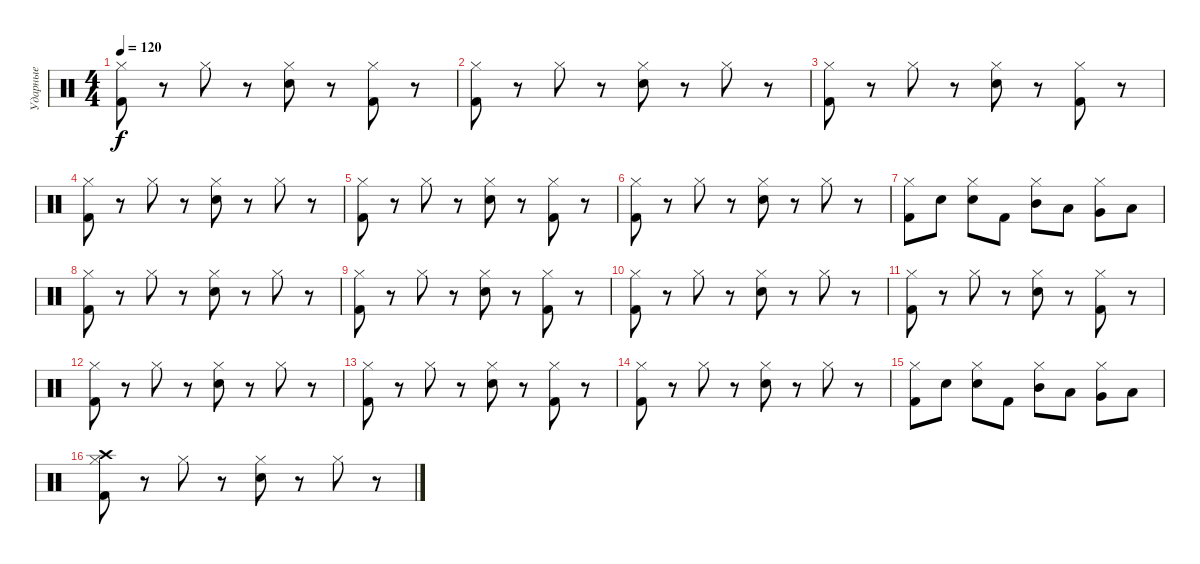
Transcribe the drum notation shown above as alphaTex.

\track ("Ударные" "Ударные") {instrument percussion}
\staff {score}
\articulation defaults
\ts (4 4)
\tempo 120
\clef neutral
\ks c
("Hi-Hat (closed)" "Kick (hit) 2").8{dy f} r.8 "Hi-Hat (closed)".8 r.8 ("Snare (hit) 2" "Hi-Hat (closed)").8 r.8 ("Hi-Hat (closed)" "Kick (hit) 2").8 r.8 |
("Hi-Hat (closed)" "Kick (hit) 2").8 r.8 "Hi-Hat (closed)".8 r.8 ("Snare (hit) 2" "Hi-Hat (closed)").8 r.8 "Hi-Hat (closed)".8 r.8 |
("Hi-Hat (closed)" "Kick (hit) 2").8 r.8 "Hi-Hat (closed)".8 r.8 ("Snare (hit) 2" "Hi-Hat (closed)").8 r.8 ("Hi-Hat (closed)" "Kick (hit) 2").8 r.8 |
("Hi-Hat (closed)" "Kick (hit) 2").8 r.8 "Hi-Hat (closed)".8 r.8 ("Snare (hit) 2" "Hi-Hat (closed)").8 r.8 "Hi-Hat (closed)".8 r.8 |
("Hi-Hat (closed)" "Kick (hit) 2").8 r.8 "Hi-Hat (closed)".8 r.8 ("Snare (hit) 2" "Hi-Hat (closed)").8 r.8 ("Hi-Hat (closed)" "Kick (hit) 2").8 r.8 |
("Hi-Hat (closed)" "Kick (hit) 2").8 r.8 "Hi-Hat (closed)".8 r.8 ("Snare (hit) 2" "Hi-Hat (closed)").8 r.8 "Hi-Hat (closed)".8 r.8 |
("Hi-Hat (closed)" "Kick (hit) 2").8 "Snare (hit) 2".8 ("Snare (hit) 2" "Hi-Hat (closed)").8 "Kick (hit) 2".8 ("Mid Tom (hit)" "Hi-Hat (closed)").8 "Low Tom (hit)".8 ("Very Low Tom (hit)" "Hi-Hat (closed)").8 "Low Floor Tom (hit)".8 |
("Hi-Hat (closed)" "Kick (hit) 2").8 r.8 "Hi-Hat (closed)".8 r.8 ("Snare (hit) 2" "Hi-Hat (closed)").8 r.8 "Hi-Hat (closed)".8 r.8 |
("Hi-Hat (closed)" "Kick (hit) 2").8 r.8 "Hi-Hat (closed)".8 r.8 ("Snare (hit) 2" "Hi-Hat (closed)").8 r.8 ("Hi-Hat (closed)" "Kick (hit) 2").8 r.8 |
("Hi-Hat (closed)" "Kick (hit) 2").8 r.8 "Hi-Hat (closed)".8 r.8 ("Snare (hit) 2" "Hi-Hat (closed)").8 r.8 "Hi-Hat (closed)".8 r.8 |
("Hi-Hat (closed)" "Kick (hit) 2").8 r.8 "Hi-Hat (closed)".8 r.8 ("Snare (hit) 2" "Hi-Hat (closed)").8 r.8 ("Hi-Hat (closed)" "Kick (hit) 2").8 r.8 |
("Hi-Hat (closed)" "Kick (hit) 2").8 r.8 "Hi-Hat (closed)".8 r.8 ("Snare (hit) 2" "Hi-Hat (closed)").8 r.8 "Hi-Hat (closed)".8 r.8 |
("Hi-Hat (closed)" "Kick (hit) 2").8 r.8 "Hi-Hat (closed)".8 r.8 ("Snare (hit) 2" "Hi-Hat (closed)").8 r.8 ("Hi-Hat (closed)" "Kick (hit) 2").8 r.8 |
("Hi-Hat (closed)" "Kick (hit) 2").8 r.8 "Hi-Hat (closed)".8 r.8 ("Snare (hit) 2" "Hi-Hat (closed)").8 r.8 "Hi-Hat (closed)".8 r.8 |
("Hi-Hat (closed)" "Kick (hit) 2").8 "Snare (hit) 2".8 ("Snare (hit) 2" "Hi-Hat (closed)").8 "Kick (hit) 2".8 ("Mid Tom (hit)" "Hi-Hat (closed)").8 "Low Tom (hit)".8 ("Very Low Tom (hit)" "Hi-Hat (closed)").8 "Low Floor Tom (hit)".8 |
("Crash high (hit)" "Hi-Hat (closed)" "Kick (hit) 2").8 r.8 "Hi-Hat (closed)".8 r.8 ("Snare (hit) 2" "Hi-Hat (closed)").8 r.8 "Hi-Hat (closed)".8 r.8
